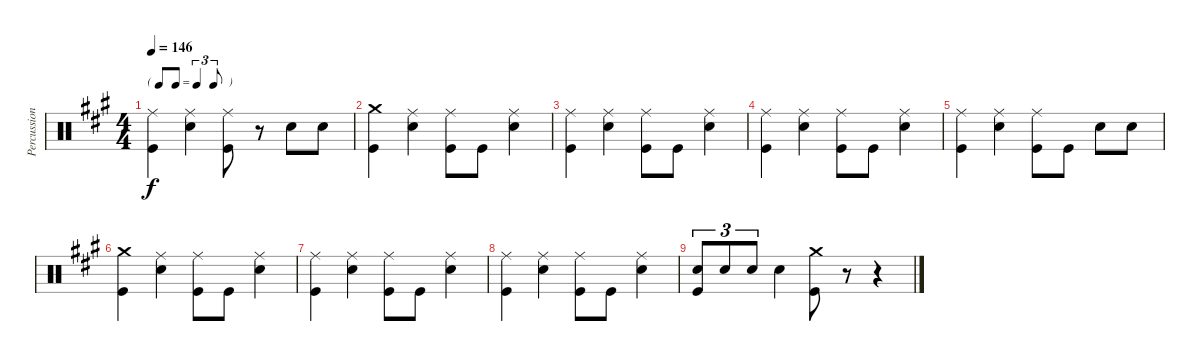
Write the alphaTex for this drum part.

\track ("Percussion" "Percussion") {instrument percussion}
\staff {score}
\articulation defaults
\ts (4 4)
\tf triplet8th
\tempo 146
\clef neutral
\ks a
("Ride (middle)" "Kick (hit)").4{dy f} ("Ride (middle)" "Snare (hit) 2").4 ("Ride (middle)" "Kick (hit)").8 r.8 "Snare (hit) 2".8 "Snare (hit) 2".8 |
("Crash medium (hit)" "Kick (hit)").4 ("Ride (middle)" "Snare (hit) 2").4 ("Ride (middle)" "Kick (hit)").8 "Kick (hit)".8 ("Ride (middle)" "Snare (hit) 2").4 |
("Ride (middle)" "Kick (hit)").4 ("Ride (middle)" "Snare (hit) 2").4 ("Ride (middle)" "Kick (hit)").8 "Kick (hit)".8 ("Ride (middle)" "Snare (hit) 2").4 |
("Ride (middle)" "Kick (hit)").4 ("Ride (middle)" "Snare (hit) 2").4 ("Ride (middle)" "Kick (hit)").8 "Kick (hit)".8 ("Ride (middle)" "Snare (hit) 2").4 |
("Ride (middle)" "Kick (hit)").4 ("Ride (middle)" "Snare (hit) 2").4 ("Ride (middle)" "Kick (hit)").8 "Kick (hit)".8 "Snare (hit) 2".8 "Snare (hit) 2".8 |
("Crash medium (hit)" "Kick (hit)").4 ("Ride (middle)" "Snare (hit) 2").4 ("Ride (middle)" "Kick (hit)").8 "Kick (hit)".8 ("Ride (middle)" "Snare (hit) 2").4 |
("Ride (middle)" "Kick (hit)").4 ("Ride (middle)" "Snare (hit) 2").4 ("Ride (middle)" "Kick (hit)").8 "Kick (hit)".8 ("Ride (middle)" "Snare (hit) 2").4 |
("Ride (middle)" "Kick (hit)").4 ("Ride (middle)" "Snare (hit) 2").4 ("Ride (middle)" "Kick (hit)").8 "Kick (hit)".8 ("Ride (middle)" "Snare (hit) 2").4 |
("Snare (hit) 2" "Kick (hit)").8{tu (3 2)} "Snare (hit) 2".8{tu (3 2)} "Snare (hit) 2".8{tu (3 2)} "Snare (hit) 2".4 ("Crash medium (hit)" "Kick (hit)").8 r.8 r.4
